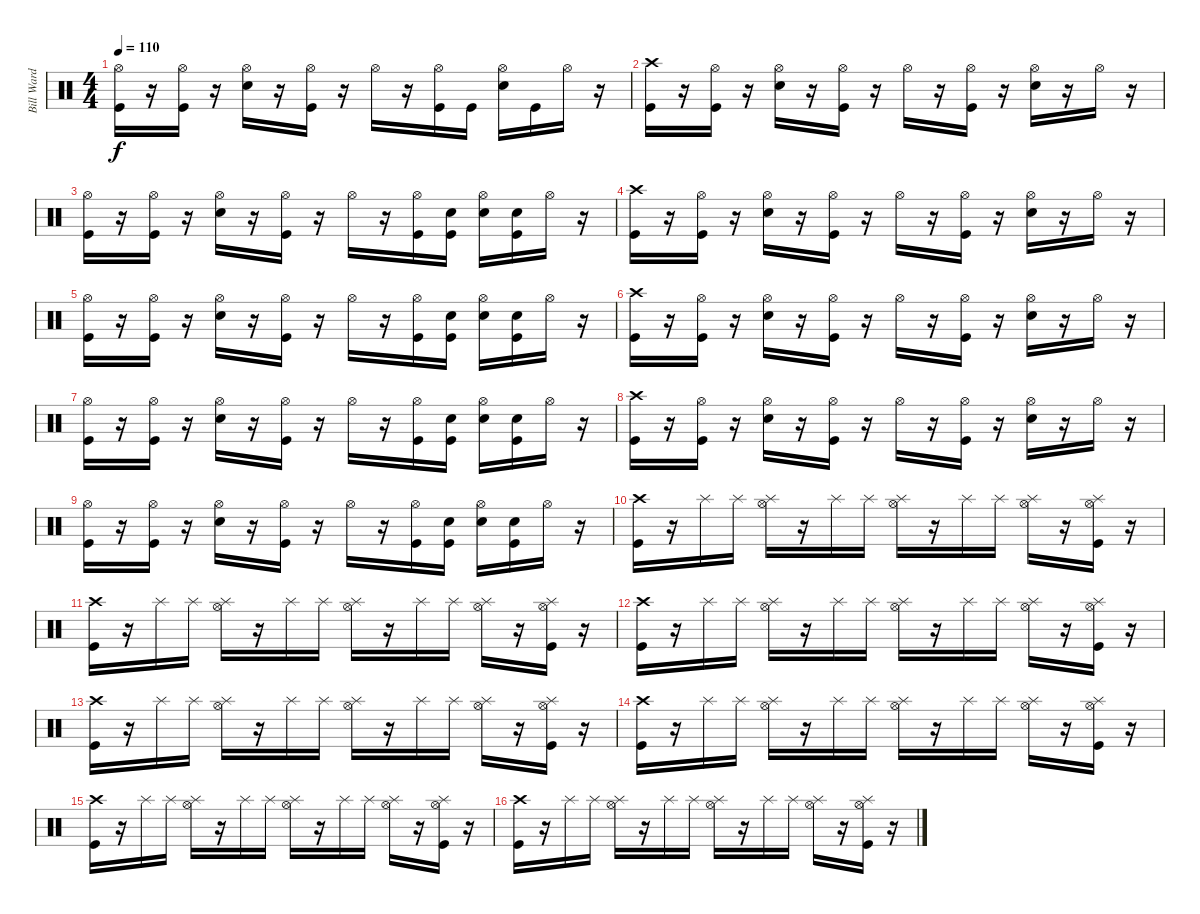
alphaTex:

\track ("Bill Ward" "Bill Ward") {instrument percussion}
\staff {score}
\articulation defaults
\ts (4 4)
\tempo 110
\clef neutral
\ks c
("Kick (hit)" "Hi-Hat (open)").16{dy f} r.16 ("Kick (hit)" "Hi-Hat (open)").16 r.16 ("Snare (hit) 2" "Hi-Hat (open)").16 r.16 ("Kick (hit)" "Hi-Hat (open)").16 r.16 "Hi-Hat (open)".16 r.16 ("Kick (hit)" "Hi-Hat (open)").16 "Kick (hit)".16 ("Hi-Hat (open)" "Snare (hit) 2").16 "Kick (hit)".16 "Hi-Hat (open)".16 r.16 |
("Crash high (hit)" "Kick (hit)").16 r.16 ("Kick (hit)" "Hi-Hat (open)").16 r.16 ("Snare (hit) 2" "Hi-Hat (open)").16 r.16 ("Kick (hit)" "Hi-Hat (open)").16 r.16 "Hi-Hat (open)".16 r.16 ("Kick (hit)" "Hi-Hat (open)").16 r.16 ("Snare (hit) 2" "Hi-Hat (open)").16 r.16 "Hi-Hat (open)".16 r.16 |
("Kick (hit)" "Hi-Hat (open)").16 r.16 ("Kick (hit)" "Hi-Hat (open)").16 r.16 ("Snare (hit) 2" "Hi-Hat (open)").16 r.16 ("Kick (hit)" "Hi-Hat (open)").16 r.16 "Hi-Hat (open)".16 r.16 ("Kick (hit)" "Hi-Hat (open)").16 ("Snare (hit)" "Kick (hit)").16 ("Snare (hit) 2" "Hi-Hat (open)").16 ("Snare (hit)" "Kick (hit)").16 "Hi-Hat (open)".16 r.16 |
("Kick (hit)" "Crash high (hit)").16 r.16 ("Kick (hit)" "Hi-Hat (open)").16 r.16 ("Snare (hit) 2" "Hi-Hat (open)").16 r.16 ("Kick (hit)" "Hi-Hat (open)").16 r.16 "Hi-Hat (open)".16 r.16 ("Kick (hit)" "Hi-Hat (open)").16 r.16 ("Snare (hit) 2" "Hi-Hat (open)").16 r.16 "Hi-Hat (open)".16 r.16 |
("Kick (hit)" "Hi-Hat (open)").16 r.16 ("Kick (hit)" "Hi-Hat (open)").16 r.16 ("Snare (hit) 2" "Hi-Hat (open)").16 r.16 ("Kick (hit)" "Hi-Hat (open)").16 r.16 "Hi-Hat (open)".16 r.16 ("Kick (hit)" "Hi-Hat (open)").16 ("Snare (hit)" "Kick (hit)").16 ("Snare (hit) 2" "Hi-Hat (open)").16 ("Snare (hit)" "Kick (hit)").16 "Hi-Hat (open)".16 r.16 |
("Crash high (hit)" "Kick (hit)").16 r.16 ("Kick (hit)" "Hi-Hat (open)").16 r.16 ("Snare (hit) 2" "Hi-Hat (open)").16 r.16 ("Kick (hit)" "Hi-Hat (open)").16 r.16 "Hi-Hat (open)".16 r.16 ("Kick (hit)" "Hi-Hat (open)").16 r.16 ("Snare (hit) 2" "Hi-Hat (open)").16 r.16 "Hi-Hat (open)".16 r.16 |
("Kick (hit)" "Hi-Hat (open)").16 r.16 ("Kick (hit)" "Hi-Hat (open)").16 r.16 ("Snare (hit) 2" "Hi-Hat (open)").16 r.16 ("Kick (hit)" "Hi-Hat (open)").16 r.16 "Hi-Hat (open)".16 r.16 ("Kick (hit)" "Hi-Hat (open)").16 ("Snare (hit)" "Kick (hit)").16 ("Snare (hit) 2" "Hi-Hat (open)").16 ("Snare (hit)" "Kick (hit)").16 "Hi-Hat (open)".16 r.16 |
("Kick (hit)" "Crash high (hit)").16 r.16 ("Kick (hit)" "Hi-Hat (open)").16 r.16 ("Snare (hit) 2" "Hi-Hat (open)").16 r.16 ("Kick (hit)" "Hi-Hat (open)").16 r.16 "Hi-Hat (open)".16 r.16 ("Kick (hit)" "Hi-Hat (open)").16 r.16 ("Snare (hit) 2" "Hi-Hat (open)").16 r.16 "Hi-Hat (open)".16 r.16 |
("Kick (hit)" "Hi-Hat (open)").16 r.16 ("Kick (hit)" "Hi-Hat (open)").16 r.16 ("Snare (hit) 2" "Hi-Hat (open)").16 r.16 ("Kick (hit)" "Hi-Hat (open)").16 r.16 "Hi-Hat (open)".16 r.16 ("Kick (hit)" "Hi-Hat (open)").16 ("Snare (hit)" "Kick (hit)").16 ("Snare (hit) 2" "Hi-Hat (open)").16 ("Snare (hit)" "Kick (hit)").16 "Hi-Hat (open)".16 r.16 |
("Kick (hit)" "Crash high (hit)").16 r.16 "Splash (hit)".16 "Splash (hit)".16 ("Hi-Hat (open)" "Splash (hit)").16 r.16 "Splash (hit)".16 "Splash (hit)".16 ("Hi-Hat (open)" "Splash (hit)").16 r.16 "Splash (hit)".16 "Splash (hit)".16 ("Hi-Hat (open)" "Splash (hit)").16 r.16 ("Kick (hit)" "Hi-Hat (open)" "Splash (hit)").16 r.16 |
("Crash high (hit)" "Kick (hit)").16 r.16 "Splash (hit)".16 "Splash (hit)".16 ("Hi-Hat (open)" "Splash (hit)").16 r.16 "Splash (hit)".16 "Splash (hit)".16 ("Hi-Hat (open)" "Splash (hit)").16 r.16 "Splash (hit)".16 "Splash (hit)".16 ("Hi-Hat (open)" "Splash (hit)").16 r.16 ("Kick (hit)" "Hi-Hat (open)" "Splash (hit)").16 r.16 |
("Crash high (hit)" "Kick (hit)").16 r.16 "Splash (hit)".16 "Splash (hit)".16 ("Hi-Hat (open)" "Splash (hit)").16 r.16 "Splash (hit)".16 "Splash (hit)".16 ("Hi-Hat (open)" "Splash (hit)").16 r.16 "Splash (hit)".16 "Splash (hit)".16 ("Hi-Hat (open)" "Splash (hit)").16 r.16 ("Kick (hit)" "Hi-Hat (open)" "Splash (hit)").16 r.16 |
("Crash high (hit)" "Kick (hit)").16 r.16 "Splash (hit)".16 "Splash (hit)".16 ("Hi-Hat (open)" "Splash (hit)").16 r.16 "Splash (hit)".16 "Splash (hit)".16 ("Hi-Hat (open)" "Splash (hit)").16 r.16 "Splash (hit)".16 "Splash (hit)".16 ("Hi-Hat (open)" "Splash (hit)").16 r.16 ("Kick (hit)" "Hi-Hat (open)" "Splash (hit)").16 r.16 |
("Crash high (hit)" "Kick (hit)").16 r.16 "Splash (hit)".16 "Splash (hit)".16 ("Hi-Hat (open)" "Splash (hit)").16 r.16 "Splash (hit)".16 "Splash (hit)".16 ("Hi-Hat (open)" "Splash (hit)").16 r.16 "Splash (hit)".16 "Splash (hit)".16 ("Hi-Hat (open)" "Splash (hit)").16 r.16 ("Kick (hit)" "Hi-Hat (open)" "Splash (hit)").16 r.16 |
("Crash high (hit)" "Kick (hit)").16 r.16 "Splash (hit)".16 "Splash (hit)".16 ("Hi-Hat (open)" "Splash (hit)").16 r.16 "Splash (hit)".16 "Splash (hit)".16 ("Hi-Hat (open)" "Splash (hit)").16 r.16 "Splash (hit)".16 "Splash (hit)".16 ("Hi-Hat (open)" "Splash (hit)").16 r.16 ("Kick (hit)" "Hi-Hat (open)" "Splash (hit)").16 r.16 |
("Crash high (hit)" "Kick (hit)").16 r.16 "Splash (hit)".16 "Splash (hit)".16 ("Hi-Hat (open)" "Splash (hit)").16 r.16 "Splash (hit)".16 "Splash (hit)".16 ("Hi-Hat (open)" "Splash (hit)").16 r.16 "Splash (hit)".16 "Splash (hit)".16 ("Hi-Hat (open)" "Splash (hit)").16 r.16 ("Kick (hit)" "Hi-Hat (open)" "Splash (hit)").16 r.16
